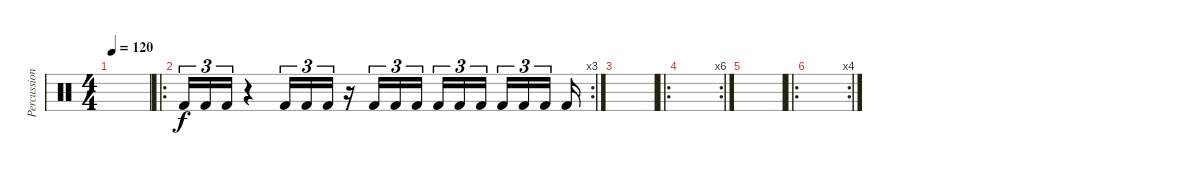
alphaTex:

\track ("Percussion" "Percussion") {instrument percussion}
\staff {score}
\articulation defaults
\ts (4 4)
\tempo 120
\clef neutral
\ks c
|
\ro
\rc 3 "Kick (hit) 2".16{tu (3 2)} "Kick (hit) 2".16{tu (3 2)} "Kick (hit) 2".16{tu (3 2)}
r.4 "Kick (hit) 2".16{tu (3 2)} "Kick (hit) 2".16{tu (3 2)} "Kick (hit) 2".16{tu (3 2)} r.16 "Kick (hit) 2".16{tu (3 2)} "Kick (hit) 2".16{tu (3 2)} "Kick (hit) 2".16{tu (3 2) beam splitsecondary} "Kick (hit) 2".16{tu (3 2)} "Kick (hit) 2".16{tu (3 2)} "Kick (hit) 2".16{tu (3 2) beam splitsecondary} "Kick (hit) 2".16{tu (3 2)} "Kick (hit) 2".16{tu (3 2)} "Kick (hit) 2".16{tu (3 2) beam splitsecondary} "Kick (hit) 2".16 |
|
\ro
\rc 6
|
|
\ro
\rc 4
